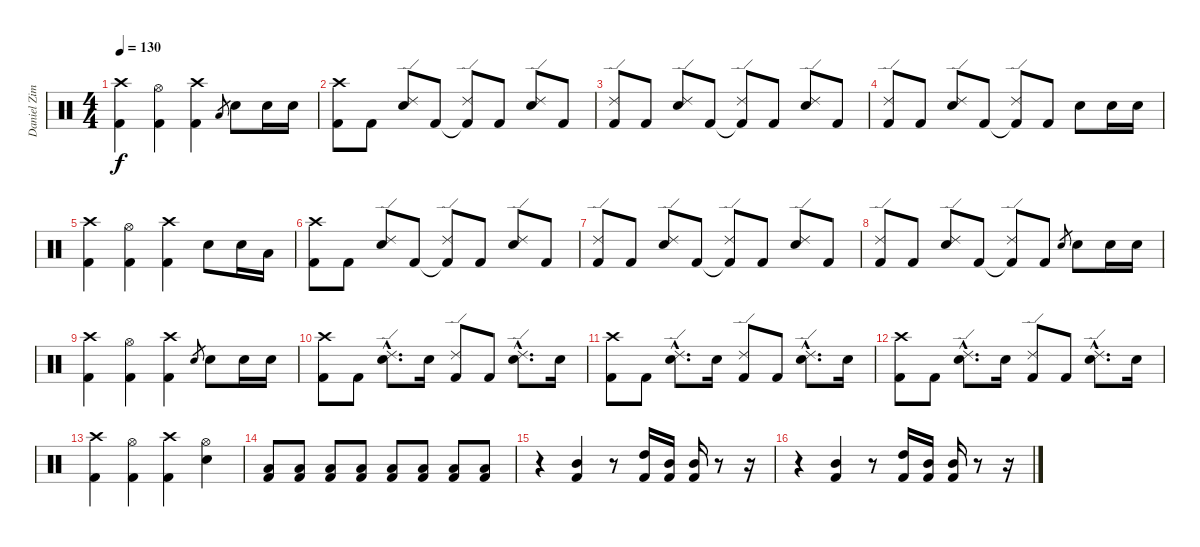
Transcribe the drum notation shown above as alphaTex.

\track ("Daniel Zimmermann" "Daniel Zim") {instrument percussion}
\staff {score}
\articulation defaults
\ts (4 4)
\tempo 130
\clef neutral
\ks c
("Kick (hit) 2" "Crash high (hit)").4{dy f} ("Kick (hit) 2" "Hi-Hat (open)").4 ("Kick (hit) 2" "Crash high (hit)").4 "Low Floor Tom (hit)".8{gr} "Electric Snare (hit)".8 "Electric Snare (hit)".16 "Electric Snare (hit)".16 |
("Kick (hit) 2" "Crash high (hit)").8 "Kick (hit) 2".8 ("Electric Snare (hit)" "Ride (edge) 2").8 "Kick (hit) 2".8 ("Kick (hit) 2"{t} "Ride (edge) 2").8 "Kick (hit) 2".8 ("Electric Snare (hit)" "Ride (edge) 2").8 "Kick (hit) 2".8 |
("Kick (hit) 2" "Ride (edge) 2").8 "Kick (hit) 2".8 ("Electric Snare (hit)" "Ride (edge) 2").8 "Kick (hit) 2".8 ("Kick (hit) 2"{t} "Ride (edge) 2").8 "Kick (hit) 2".8 ("Electric Snare (hit)" "Ride (edge) 2").8 "Kick (hit) 2".8 |
("Kick (hit) 2" "Ride (edge) 2").8 "Kick (hit) 2".8 ("Electric Snare (hit)" "Ride (edge) 2").8 "Kick (hit) 2".8 ("Kick (hit) 2"{t} "Ride (edge) 2").8 "Kick (hit) 2".8 "Electric Snare (hit)".8 "Electric Snare (hit)".16 "Electric Snare (hit)".16 |
("Kick (hit) 2" "Crash high (hit)").4 ("Kick (hit) 2" "Hi-Hat (open)").4 ("Kick (hit) 2" "Crash high (hit)").4 "Electric Snare (hit)".8 "Electric Snare (hit)".16 "Low Tom (hit)".16 |
("Kick (hit) 2" "Crash high (hit)").8 "Kick (hit) 2".8 ("Electric Snare (hit)" "Ride (edge) 2").8 "Kick (hit) 2".8 ("Kick (hit) 2"{t} "Ride (edge) 2").8 "Kick (hit) 2".8 ("Electric Snare (hit)" "Ride (edge) 2").8 "Kick (hit) 2".8 |
("Kick (hit) 2" "Ride (edge) 2").8 "Kick (hit) 2".8 ("Electric Snare (hit)" "Ride (edge) 2").8 "Kick (hit) 2".8 ("Kick (hit) 2"{t} "Ride (edge) 2").8 "Kick (hit) 2".8 ("Electric Snare (hit)" "Ride (edge) 2").8 "Kick (hit) 2".8 |
("Kick (hit) 2" "Ride (edge) 2").8 "Kick (hit) 2".8 ("Electric Snare (hit)" "Ride (edge) 2").8 "Kick (hit) 2".8 ("Kick (hit) 2"{t} "Ride (edge) 2").8 "Kick (hit) 2".8 "Electric Snare (hit)".8{gr} "Electric Snare (hit)".8 "Electric Snare (hit)".16 "Electric Snare (hit)".16 |
("Kick (hit) 2" "Crash high (hit)").4 ("Kick (hit) 2" "Hi-Hat (open)").4 ("Kick (hit) 2" "Crash high (hit)").4 "Electric Snare (hit)".8{gr} "Electric Snare (hit)".8 "Electric Snare (hit)".16 "Electric Snare (hit)".16 |
("Kick (hit) 2" "Crash high (hit)").8 "Kick (hit) 2".8 ("Electric Snare (hit)"{hac} "Ride (edge) 2"{hac}).8{d} "Electric Snare (hit)".16 ("Kick (hit) 2" "Ride (edge) 2").8 "Kick (hit) 2".8 ("Electric Snare (hit)"{hac} "Ride (edge) 2"{hac}).8{d} "Electric Snare (hit)".16 |
("Kick (hit) 2" "Crash high (hit)").8 "Kick (hit) 2".8 ("Electric Snare (hit)"{hac} "Ride (edge) 2"{hac}).8{d} "Electric Snare (hit)".16 ("Kick (hit) 2" "Ride (edge) 2").8 "Kick (hit) 2".8 ("Electric Snare (hit)"{hac} "Ride (edge) 2"{hac}).8{d} "Electric Snare (hit)".16 |
("Kick (hit) 2" "Crash high (hit)").8 "Kick (hit) 2".8 ("Electric Snare (hit)"{hac} "Ride (edge) 2"{hac}).8{d} "Electric Snare (hit)".16 ("Kick (hit) 2" "Ride (edge) 2").8 "Kick (hit) 2".8 ("Electric Snare (hit)"{hac} "Ride (edge) 2"{hac}).8{d} "Electric Snare (hit)".16 |
("Kick (hit) 2" "Crash high (hit)").4 ("Kick (hit) 2" "Hi-Hat (open)").4 ("Kick (hit) 2" "Crash high (hit)").4 ("Hi-Hat (open)" "Electric Snare (hit)").4 |
("Kick (hit) 2" "Low Tom (hit)").8 ("Kick (hit) 2" "Low Tom (hit)").8 ("Kick (hit) 2" "Low Tom (hit)").8 ("Kick (hit) 2" "Low Tom (hit)").8 ("Kick (hit) 2" "Low Tom (hit)").8 ("Kick (hit) 2" "Low Tom (hit)").8 ("Kick (hit) 2" "Low Tom (hit)").8 ("Kick (hit) 2" "Low Tom (hit)").8 |
r.4 ("Kick (hit) 2" "Mid Tom (hit)").4 r.8 ("Kick (hit) 2" "High Tom (hit)").16 ("Kick (hit) 2" "Mid Tom (hit)").16 ("Kick (hit) 2" "Mid Tom (hit)").16 r.8 r.16 |
r.4 ("Kick (hit) 2" "Mid Tom (hit)").4 r.8 ("Kick (hit) 2" "High Tom (hit)").16 ("Kick (hit) 2" "Mid Tom (hit)").16 ("Kick (hit) 2" "Mid Tom (hit)").16 r.8 r.16
